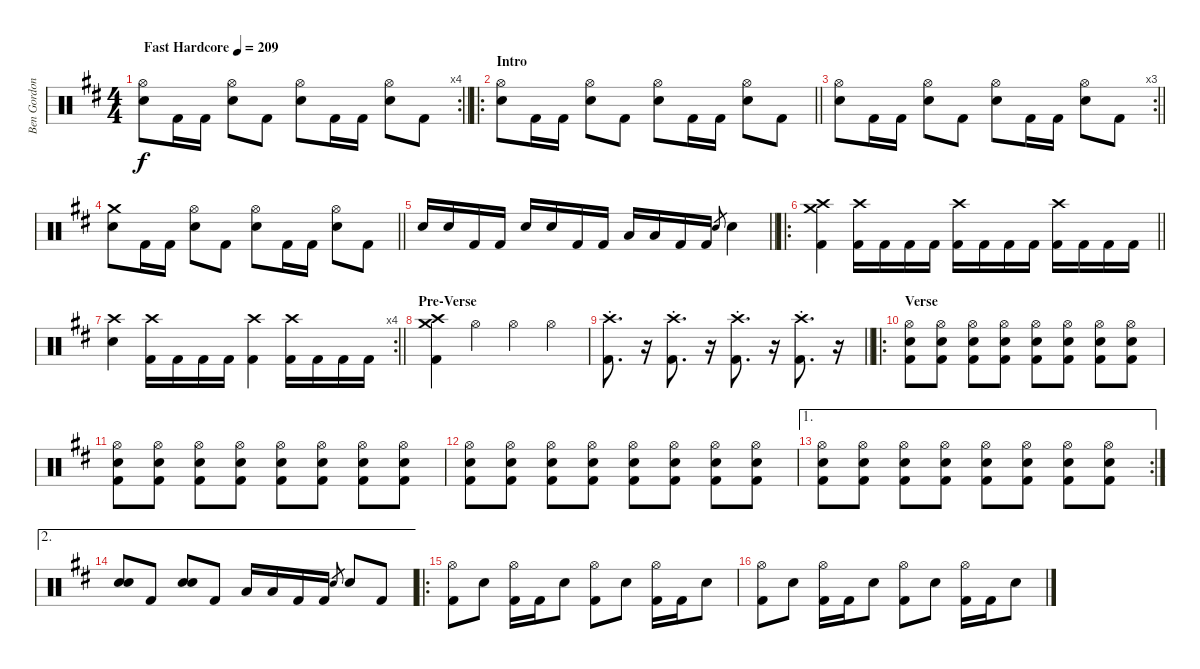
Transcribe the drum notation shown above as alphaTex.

\track ("Ben Gordon" "Ben Gordon") {instrument percussion}
\staff {score}
\articulation defaults
\rc 4
\ts (4 4)
\tempo (209 "Fast Hardcore")
\clef neutral
\barLineRight lightlight
\ks d
("Hi-Hat (open)" "Electric Snare (hit)").8{dy f} "Kick (hit) 2".16 "Kick (hit) 2".16 ("Hi-Hat (open)" "Electric Snare (hit)").8 "Kick (hit) 2".8 ("Hi-Hat (open)" "Electric Snare (hit)").8 "Kick (hit) 2".16 "Kick (hit) 2".16 ("Hi-Hat (open)" "Electric Snare (hit)").8 "Kick (hit) 2".8 |
\ro
\section ("" "Intro")
\barLineRight lightlight
("Hi-Hat (open)" "Electric Snare (hit)").8 "Kick (hit) 2".16 "Kick (hit) 2".16 ("Hi-Hat (open)" "Electric Snare (hit)").8 "Kick (hit) 2".8 ("Hi-Hat (open)" "Electric Snare (hit)").8 "Kick (hit) 2".16 "Kick (hit) 2".16 ("Hi-Hat (open)" "Electric Snare (hit)").8 "Kick (hit) 2".8 |
\rc 3
\barLineRight lightlight
("Hi-Hat (open)" "Electric Snare (hit)").8 "Kick (hit) 2".16 "Kick (hit) 2".16 ("Hi-Hat (open)" "Electric Snare (hit)").8 "Kick (hit) 2".8 ("Hi-Hat (open)" "Electric Snare (hit)").8 "Kick (hit) 2".16 "Kick (hit) 2".16 ("Hi-Hat (open)" "Electric Snare (hit)").8 "Kick (hit) 2".8 |
\barLineRight lightlight
("Crash medium (hit)" "Electric Snare (hit)").8 "Kick (hit) 2".16 "Kick (hit) 2".16 ("Hi-Hat (open)" "Electric Snare (hit)").8 "Kick (hit) 2".8 ("Hi-Hat (open)" "Electric Snare (hit)").8 "Kick (hit) 2".16 "Kick (hit) 2".16 ("Hi-Hat (open)" "Electric Snare (hit)").8 "Kick (hit) 2".8 |
\barLineRight lightlight "Electric Snare (hit)".16 "Electric Snare (hit)".16 "Kick (hit) 2".16 "Kick (hit) 2".16 "Electric Snare (hit)".16 "Electric Snare (hit)".16 "Kick (hit) 2".16 "Kick (hit) 2".16 "Low Tom (hit)".16 "Low Tom (hit)".16 "Kick (hit) 2".16 "Kick (hit) 2".16 "Electric Snare (hit)".8{gr} "Electric Snare (hit)".4
|
\ro
\barLineRight lightlight
("Crash medium (hit)" "Crash high (hit)" "Kick (hit) 2").4 ("Crash high (hit)" "Kick (hit) 2").16 "Kick (hit) 2".16 "Kick (hit) 2".16 "Kick (hit) 2".16 ("Crash high (hit)" "Kick (hit) 2").16 "Kick (hit) 2".16 "Kick (hit) 2".16 "Kick (hit) 2".16 ("Crash high (hit)" "Kick (hit) 2").16 "Kick (hit) 2".16 "Kick (hit) 2".16 "Kick (hit) 2".16 |
\rc 4
\barLineRight lightlight
("Crash high (hit)" "Electric Snare (hit)").4 ("Crash high (hit)" "Kick (hit) 2").16 "Kick (hit) 2".16 "Kick (hit) 2".16 "Kick (hit) 2".16 ("Crash high (hit)" "Kick (hit) 2").4 ("Crash high (hit)" "Kick (hit) 2").16 "Kick (hit) 2".16 "Kick (hit) 2".16 "Kick (hit) 2".16 |
\section ("" "Pre-Verse")
("Crash medium (hit)" "Crash high (hit)" "Kick (hit) 2").4 "Hi-Hat (open)".4 "Hi-Hat (open)".4 "Hi-Hat (open)".4 |
\barLineRight lightlight
("Crash high (hit)"{st} "Kick (hit) 2").8{d} r.16{volume 0} ("Crash high (hit)"{st} "Kick (hit) 2").8{d volume 14} r.16{volume 0} ("Crash high (hit)"{st} "Kick (hit) 2").8{d volume 14} r.16{volume 0} ("Crash high (hit)"{st} "Kick (hit) 2").8{d volume 14} r.16{volume 0} |
\ro
\section ("" "Verse")
("Hi-Hat (open)" "Electric Snare (hit)" "Kick (hit) 2").8{volume 14} ("Hi-Hat (open)" "Electric Snare (hit)" "Kick (hit) 2").8 ("Hi-Hat (open)" "Electric Snare (hit)" "Kick (hit) 2").8 ("Hi-Hat (open)" "Electric Snare (hit)" "Kick (hit) 2").8 ("Hi-Hat (open)" "Electric Snare (hit)" "Kick (hit) 2").8 ("Hi-Hat (open)" "Electric Snare (hit)" "Kick (hit) 2").8 ("Hi-Hat (open)" "Electric Snare (hit)" "Kick (hit) 2").8 ("Hi-Hat (open)" "Electric Snare (hit)" "Kick (hit) 2").8 |
("Hi-Hat (open)" "Electric Snare (hit)" "Kick (hit) 2").8 ("Hi-Hat (open)" "Electric Snare (hit)" "Kick (hit) 2").8 ("Hi-Hat (open)" "Electric Snare (hit)" "Kick (hit) 2").8 ("Hi-Hat (open)" "Electric Snare (hit)" "Kick (hit) 2").8 ("Hi-Hat (open)" "Electric Snare (hit)" "Kick (hit) 2").8 ("Hi-Hat (open)" "Electric Snare (hit)" "Kick (hit) 2").8 ("Hi-Hat (open)" "Electric Snare (hit)" "Kick (hit) 2").8 ("Hi-Hat (open)" "Electric Snare (hit)" "Kick (hit) 2").8 |
("Hi-Hat (open)" "Electric Snare (hit)" "Kick (hit) 2").8 ("Hi-Hat (open)" "Electric Snare (hit)" "Kick (hit) 2").8 ("Hi-Hat (open)" "Electric Snare (hit)" "Kick (hit) 2").8 ("Hi-Hat (open)" "Electric Snare (hit)" "Kick (hit) 2").8 ("Hi-Hat (open)" "Electric Snare (hit)" "Kick (hit) 2").8 ("Hi-Hat (open)" "Electric Snare (hit)" "Kick (hit) 2").8 ("Hi-Hat (open)" "Electric Snare (hit)" "Kick (hit) 2").8 ("Hi-Hat (open)" "Electric Snare (hit)" "Kick (hit) 2").8 |
\ae 1
\rc 2
("Hi-Hat (open)" "Electric Snare (hit)" "Kick (hit) 2").8 ("Hi-Hat (open)" "Electric Snare (hit)" "Kick (hit) 2").8 ("Hi-Hat (open)" "Electric Snare (hit)" "Kick (hit) 2").8 ("Hi-Hat (open)" "Electric Snare (hit)" "Kick (hit) 2").8 ("Hi-Hat (open)" "Electric Snare (hit)" "Kick (hit) 2").8 ("Hi-Hat (open)" "Electric Snare (hit)" "Kick (hit) 2").8 ("Hi-Hat (open)" "Electric Snare (hit)" "Kick (hit) 2").8 ("Hi-Hat (open)" "Electric Snare (hit)" "Kick (hit) 2").8 |
\ae 2
("Electric Snare (hit)" "Electric Snare (hit)").8 "Kick (hit) 2".8 ("Electric Snare (hit)" "Electric Snare (hit)").8 "Kick (hit) 2".8 "Low Tom (hit)".16 "Low Tom (hit)".16 "Kick (hit) 2".16 "Kick (hit) 2".16 "Electric Snare (hit)".8{gr} "Electric Snare (hit)".8 "Kick (hit) 2".8 |
\ro
("Hi-Hat (open)" "Kick (hit) 2").8 "Electric Snare (hit)".8 ("Hi-Hat (open)" "Kick (hit) 2").16 "Kick (hit) 2".16 "Electric Snare (hit)".8 ("Hi-Hat (open)" "Kick (hit) 2").8 "Electric Snare (hit)".8 ("Hi-Hat (open)" "Kick (hit) 2").16 "Kick (hit) 2".16 "Electric Snare (hit)".8 |
("Hi-Hat (open)" "Kick (hit) 2").8 "Electric Snare (hit)".8 ("Hi-Hat (open)" "Kick (hit) 2").16 "Kick (hit) 2".16 "Electric Snare (hit)".8 ("Hi-Hat (open)" "Kick (hit) 2").8 "Electric Snare (hit)".8 ("Hi-Hat (open)" "Kick (hit) 2").16 "Kick (hit) 2".16 "Electric Snare (hit)".8
